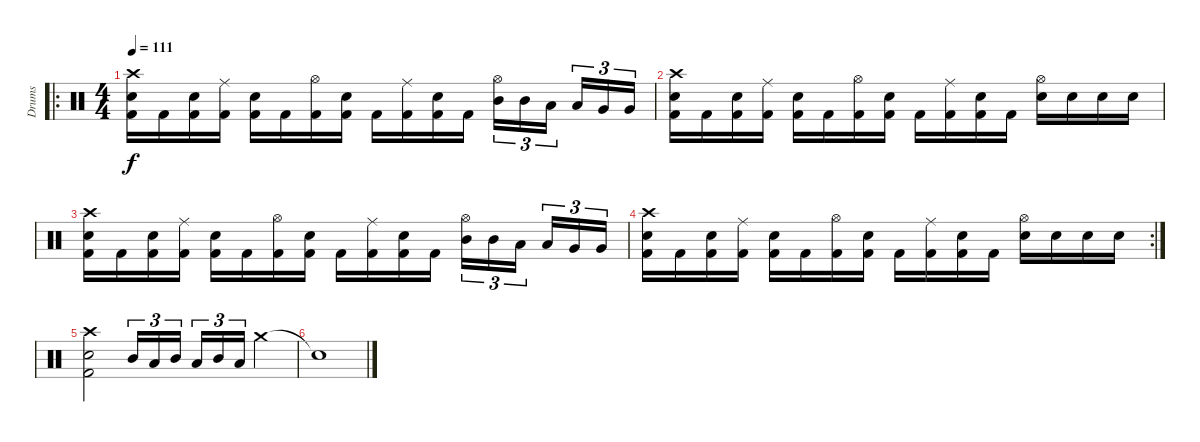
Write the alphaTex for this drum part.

\track ("Drums" "Drums") {instrument percussion}
\staff {score}
\articulation defaults
\ro
\ts (4 4)
\tempo 111
\clef neutral
\ks c
("Crash high (hit)" "Electric Snare (hit)" "Kick (hit) 2").16{dy f} "Kick (hit) 2".16 ("Electric Snare (hit)" "Kick (hit) 2").16 ("Ride (middle)" "Kick (hit) 2").16 ("Electric Snare (hit)" "Kick (hit) 2").16 "Kick (hit) 2".16 ("Hi-Hat (open)" "Kick (hit) 2").16 ("Electric Snare (hit)" "Kick (hit) 2").16 "Kick (hit) 2".16 ("Ride (middle)" "Kick (hit) 2").16 ("Electric Snare (hit)" "Kick (hit) 2").16 "Kick (hit) 2".16 ("Hi-Hat (open)" "Mid Tom (hit)").16{tu (3 2)} "Mid Tom (hit)".16{tu (3 2)} "Low Tom (hit)".16{tu (3 2)} "Low Tom (hit)".16{tu (3 2)} "Very Low Tom (hit)".16{tu (3 2)} "Very Low Tom (hit)".16{tu (3 2)} |
("Crash high (hit)" "Electric Snare (hit)" "Kick (hit) 2").16 "Kick (hit) 2".16 ("Electric Snare (hit)" "Kick (hit) 2").16 ("Ride (middle)" "Kick (hit) 2").16 ("Electric Snare (hit)" "Kick (hit) 2").16 "Kick (hit) 2".16 ("Hi-Hat (open)" "Kick (hit) 2").16 ("Electric Snare (hit)" "Kick (hit) 2").16 "Kick (hit) 2".16 ("Ride (middle)" "Kick (hit) 2").16 ("Electric Snare (hit)" "Kick (hit) 2").16 "Kick (hit) 2".16 ("Hi-Hat (open)" "Electric Snare (hit)").16 "Electric Snare (hit)".16 "Electric Snare (hit)".16 "Electric Snare (hit)".16 |
("Crash high (hit)" "Electric Snare (hit)" "Kick (hit) 2").16 "Kick (hit) 2".16 ("Electric Snare (hit)" "Kick (hit) 2").16 ("Ride (middle)" "Kick (hit) 2").16 ("Electric Snare (hit)" "Kick (hit) 2").16 "Kick (hit) 2".16 ("Hi-Hat (open)" "Kick (hit) 2").16 ("Electric Snare (hit)" "Kick (hit) 2").16 "Kick (hit) 2".16 ("Ride (middle)" "Kick (hit) 2").16 ("Electric Snare (hit)" "Kick (hit) 2").16 "Kick (hit) 2".16 ("Hi-Hat (open)" "Mid Tom (hit)").16{tu (3 2)} "Mid Tom (hit)".16{tu (3 2)} "Low Tom (hit)".16{tu (3 2)} "Low Tom (hit)".16{tu (3 2)} "Very Low Tom (hit)".16{tu (3 2)} "Very Low Tom (hit)".16{tu (3 2)} |
\rc 2
("Crash high (hit)" "Electric Snare (hit)" "Kick (hit) 2").16 "Kick (hit) 2".16 ("Electric Snare (hit)" "Kick (hit) 2").16 ("Ride (middle)" "Kick (hit) 2").16 ("Electric Snare (hit)" "Kick (hit) 2").16 "Kick (hit) 2".16 ("Hi-Hat (open)" "Kick (hit) 2").16 ("Electric Snare (hit)" "Kick (hit) 2").16 "Kick (hit) 2".16 ("Ride (middle)" "Kick (hit) 2").16 ("Electric Snare (hit)" "Kick (hit) 2").16 "Kick (hit) 2".16 ("Hi-Hat (open)" "Electric Snare (hit)").16 "Electric Snare (hit)".16 "Electric Snare (hit)".16 "Electric Snare (hit)".16 |
("Crash high (hit)" "Electric Snare (hit)" "Kick (hit) 2").2 "Mid Tom (hit)".16{tu (3 2)} "Low Tom (hit)".16{tu (3 2)} "Mid Tom (hit)".16{tu (3 2)} "Low Tom (hit)".16{tu (3 2)} "Mid Tom (hit)".16{tu (3 2)} "Low Tom (hit)".16{tu (3 2)} "Crash medium (hit)".4 |
"Snare (hit)"{t}.1
